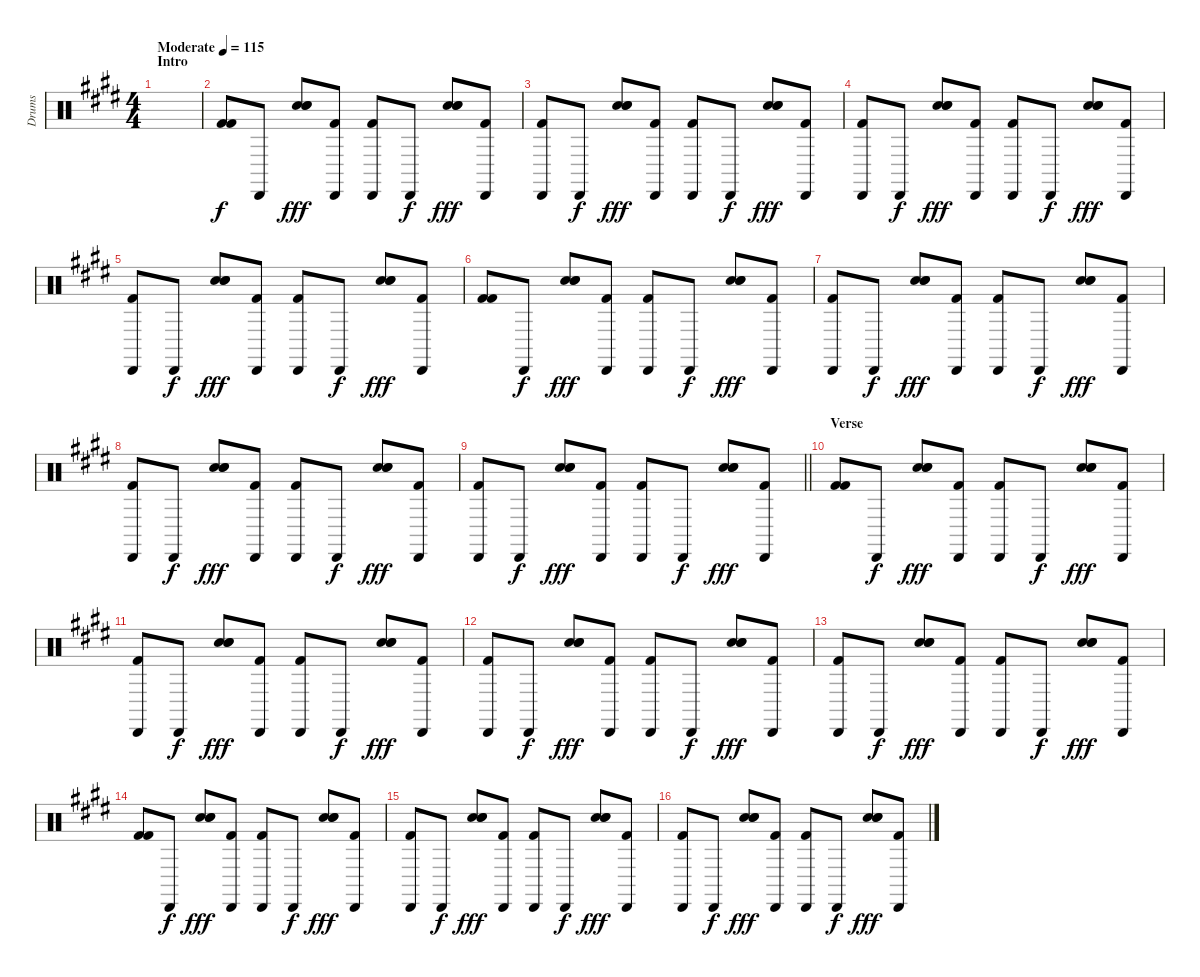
\track ("Drums" "Drums") {instrument percussion}
\staff {score}
\articulation defaults
\ts (4 4)
\section ("" "Intro")
\tempo (115 "Moderate")
\clef neutral
\ks c#minor
|
("Kick (hit) 2" "Kick (hit) 2").8 "Cabasa (hit)".8{dy f} ("Snare (hit) 2" "Electric Snare (hit)" "Hand Clap (hit)").8{bd 30 dy fff} ("Cabasa (hit)" "Kick (hit) 2").8 ("Cabasa (hit)" "Kick (hit) 2").8 "Cabasa (hit)".8{dy f} ("Snare (hit) 2" "Hand Clap (hit)" "Hand Clap (hit)").8{bd 30 dy fff} ("Cabasa (hit)" "Kick (hit) 2").8 |
("Cabasa (hit)" "Kick (hit) 2").8 "Cabasa (hit)".8{dy f} ("Snare (hit) 2" "Hand Clap (hit)" "Hand Clap (hit)").8{bd 30 dy fff} ("Cabasa (hit)" "Kick (hit) 2").8 ("Cabasa (hit)" "Kick (hit) 2").8 "Cabasa (hit)".8{dy f} ("Snare (hit) 2" "Hand Clap (hit)" "Hand Clap (hit)").8{bd 30 dy fff} ("Cabasa (hit)" "Kick (hit) 2").8 |
("Cabasa (hit)" "Kick (hit) 2").8 "Cabasa (hit)".8{dy f} ("Snare (hit) 2" "Hand Clap (hit)" "Hand Clap (hit)").8{bd 30 dy fff} ("Cabasa (hit)" "Kick (hit) 2").8 ("Cabasa (hit)" "Kick (hit) 2").8 "Cabasa (hit)".8{dy f} ("Snare (hit) 2" "Hand Clap (hit)" "Hand Clap (hit)").8{bd 30 dy fff} ("Cabasa (hit)" "Kick (hit) 2").8 |
("Cabasa (hit)" "Kick (hit) 2").8 "Cabasa (hit)".8{dy f} ("Snare (hit) 2" "Hand Clap (hit)" "Hand Clap (hit)").8{bd 30 dy fff} ("Cabasa (hit)" "Kick (hit) 2").8 ("Cabasa (hit)" "Kick (hit) 2").8 "Cabasa (hit)".8{dy f} ("Snare (hit) 2" "Hand Clap (hit)" "Hand Clap (hit)").8{bd 30 dy fff} ("Cabasa (hit)" "Kick (hit) 2").8 |
("Kick (hit) 2" "Kick (hit) 2").8 "Cabasa (hit)".8{dy f} ("Snare (hit) 2" "Hand Clap (hit)" "Hand Clap (hit)").8{bd 30 dy fff} ("Cabasa (hit)" "Kick (hit) 2").8 ("Cabasa (hit)" "Kick (hit) 2").8 "Cabasa (hit)".8{dy f} ("Snare (hit) 2" "Hand Clap (hit)" "Hand Clap (hit)").8{bd 30 dy fff} ("Cabasa (hit)" "Kick (hit) 2").8 |
("Cabasa (hit)" "Kick (hit) 2").8 "Cabasa (hit)".8{dy f} ("Snare (hit) 2" "Hand Clap (hit)" "Hand Clap (hit)").8{bd 30 dy fff} ("Cabasa (hit)" "Kick (hit) 2").8 ("Cabasa (hit)" "Kick (hit) 2").8 "Cabasa (hit)".8{dy f} ("Snare (hit) 2" "Hand Clap (hit)" "Hand Clap (hit)").8{bd 30 dy fff} ("Cabasa (hit)" "Kick (hit) 2").8 |
("Cabasa (hit)" "Kick (hit) 2").8 "Cabasa (hit)".8{dy f} ("Snare (hit) 2" "Hand Clap (hit)" "Hand Clap (hit)").8{bd 30 dy fff} ("Cabasa (hit)" "Kick (hit) 2").8 ("Cabasa (hit)" "Kick (hit) 2").8 "Cabasa (hit)".8{dy f} ("Snare (hit) 2" "Hand Clap (hit)" "Hand Clap (hit)").8{bd 30 dy fff} ("Cabasa (hit)" "Kick (hit) 2").8 |
\barLineRight lightlight
("Cabasa (hit)" "Kick (hit) 2").8 "Cabasa (hit)".8{dy f} ("Snare (hit) 2" "Hand Clap (hit)" "Hand Clap (hit)").8{bd 30 dy fff} ("Cabasa (hit)" "Kick (hit) 2").8 ("Cabasa (hit)" "Kick (hit) 2").8 "Cabasa (hit)".8{dy f} ("Snare (hit) 2" "Hand Clap (hit)" "Hand Clap (hit)").8{bd 30 dy fff} ("Cabasa (hit)" "Kick (hit) 2").8 |
\section ("" "Verse")
("Kick (hit) 2" "Kick (hit) 2").8 "Cabasa (hit)".8{dy f} ("Snare (hit) 2" "Hand Clap (hit)" "Hand Clap (hit)").8{bd 30 dy fff} ("Cabasa (hit)" "Kick (hit) 2").8 ("Cabasa (hit)" "Kick (hit) 2").8 "Cabasa (hit)".8{dy f} ("Snare (hit) 2" "Hand Clap (hit)" "Hand Clap (hit)").8{bd 30 dy fff} ("Cabasa (hit)" "Kick (hit) 2").8 |
("Cabasa (hit)" "Kick (hit) 2").8 "Cabasa (hit)".8{dy f} ("Snare (hit) 2" "Hand Clap (hit)" "Hand Clap (hit)").8{bd 30 dy fff} ("Cabasa (hit)" "Kick (hit) 2").8 ("Cabasa (hit)" "Kick (hit) 2").8 "Cabasa (hit)".8{dy f} ("Snare (hit) 2" "Hand Clap (hit)" "Hand Clap (hit)").8{bd 30 dy fff} ("Cabasa (hit)" "Kick (hit) 2").8 |
("Cabasa (hit)" "Kick (hit) 2").8 "Cabasa (hit)".8{dy f} ("Snare (hit) 2" "Hand Clap (hit)" "Hand Clap (hit)").8{bd 30 dy fff} ("Cabasa (hit)" "Kick (hit) 2").8 ("Cabasa (hit)" "Kick (hit) 2").8 "Cabasa (hit)".8{dy f} ("Snare (hit) 2" "Hand Clap (hit)" "Hand Clap (hit)").8{bd 30 dy fff} ("Cabasa (hit)" "Kick (hit) 2").8 |
("Cabasa (hit)" "Kick (hit) 2").8 "Cabasa (hit)".8{dy f} ("Snare (hit) 2" "Hand Clap (hit)" "Hand Clap (hit)").8{bd 30 dy fff} ("Cabasa (hit)" "Kick (hit) 2").8 ("Cabasa (hit)" "Kick (hit) 2").8 "Cabasa (hit)".8{dy f} ("Snare (hit) 2" "Hand Clap (hit)" "Hand Clap (hit)").8{bd 30 dy fff} ("Cabasa (hit)" "Kick (hit) 2").8 |
("Kick (hit) 2" "Kick (hit) 2").8 "Cabasa (hit)".8{dy f} ("Snare (hit) 2" "Hand Clap (hit)" "Hand Clap (hit)").8{bd 30 dy fff} ("Cabasa (hit)" "Kick (hit) 2").8 ("Cabasa (hit)" "Kick (hit) 2").8 "Cabasa (hit)".8{dy f} ("Snare (hit) 2" "Hand Clap (hit)" "Hand Clap (hit)").8{bd 30 dy fff} ("Cabasa (hit)" "Kick (hit) 2").8 |
("Cabasa (hit)" "Kick (hit) 2").8 "Cabasa (hit)".8{dy f} ("Snare (hit) 2" "Hand Clap (hit)" "Hand Clap (hit)").8{bd 30 dy fff} ("Cabasa (hit)" "Kick (hit) 2").8 ("Cabasa (hit)" "Kick (hit) 2").8 "Cabasa (hit)".8{dy f} ("Snare (hit) 2" "Hand Clap (hit)" "Hand Clap (hit)").8{bd 30 dy fff} ("Cabasa (hit)" "Kick (hit) 2").8 |
("Cabasa (hit)" "Kick (hit) 2").8 "Cabasa (hit)".8{dy f} ("Snare (hit) 2" "Hand Clap (hit)" "Hand Clap (hit)").8{bd 30 dy fff} ("Cabasa (hit)" "Kick (hit) 2").8 ("Cabasa (hit)" "Kick (hit) 2").8 "Cabasa (hit)".8{dy f} ("Snare (hit) 2" "Hand Clap (hit)" "Hand Clap (hit)").8{bd 30 dy fff} ("Cabasa (hit)" "Kick (hit) 2").8
